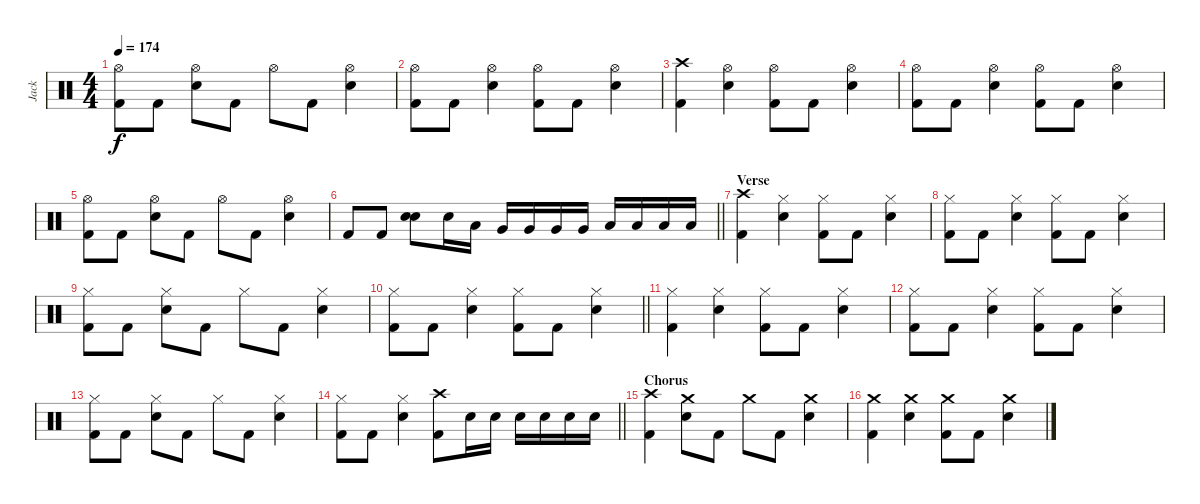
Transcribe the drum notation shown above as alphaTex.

\track ("Jack" "Jack") {instrument percussion}
\staff {score}
\articulation defaults
\ts (4 4)
\tempo 174
\clef neutral
\ks c
("Hi-Hat (open)" "Kick (hit) 2").8{dy f} "Kick (hit) 2".8 ("Hi-Hat (open)" "Electric Snare (hit)").8 "Kick (hit) 2".8 "Hi-Hat (open)".8 "Kick (hit) 2".8 ("Hi-Hat (open)" "Electric Snare (hit)").4 |
("Hi-Hat (open)" "Kick (hit) 2").8 "Kick (hit) 2".8 ("Hi-Hat (open)" "Electric Snare (hit)").4 ("Hi-Hat (open)" "Kick (hit) 2").8 "Kick (hit) 2".8 ("Hi-Hat (open)" "Electric Snare (hit)").4 |
("Crash high (hit)" "Kick (hit) 2").4 ("Hi-Hat (open)" "Electric Snare (hit)").4 ("Hi-Hat (open)" "Kick (hit) 2").8 "Kick (hit) 2".8 ("Hi-Hat (open)" "Electric Snare (hit)").4 |
("Hi-Hat (open)" "Kick (hit) 2").8 "Kick (hit) 2".8 ("Hi-Hat (open)" "Electric Snare (hit)").4 ("Hi-Hat (open)" "Kick (hit) 2").8 "Kick (hit) 2".8 ("Hi-Hat (open)" "Electric Snare (hit)").4 |
("Hi-Hat (open)" "Kick (hit) 2").8 "Kick (hit) 2".8 ("Hi-Hat (open)" "Electric Snare (hit)").8 "Kick (hit) 2".8 "Hi-Hat (open)".8 "Kick (hit) 2".8 ("Hi-Hat (open)" "Electric Snare (hit)").4 |
\barLineRight lightlight "Kick (hit) 2".8 "Kick (hit) 2".8
("Electric Snare (hit)" "Electric Snare (hit)").8 "Electric Snare (hit)".16 "Low Tom (hit)".16 "Very Low Tom (hit)".16 "Very Low Tom (hit)".16 "Very Low Tom (hit)".16 "Very Low Tom (hit)".16 "Low Floor Tom (hit)".16 "Low Floor Tom (hit)".16 "Low Floor Tom (hit)".16 "Low Floor Tom (hit)".16 |
\section ("" "Verse")
("Crash high (hit)" "Kick (hit) 2").4 ("Hi-Hat (closed)" "Electric Snare (hit)").4 ("Hi-Hat (closed)" "Kick (hit) 2").8 "Kick (hit) 2".8 ("Hi-Hat (closed)" "Electric Snare (hit)").4 |
("Hi-Hat (closed)" "Kick (hit) 2").8 "Kick (hit) 2".8 ("Hi-Hat (closed)" "Electric Snare (hit)").4 ("Hi-Hat (closed)" "Kick (hit) 2").8 "Kick (hit) 2".8 ("Hi-Hat (closed)" "Electric Snare (hit)").4 |
("Hi-Hat (closed)" "Kick (hit) 2").8 "Kick (hit) 2".8 ("Hi-Hat (closed)" "Electric Snare (hit)").8 "Kick (hit) 2".8 "Hi-Hat (closed)".8 "Kick (hit) 2".8 ("Hi-Hat (closed)" "Electric Snare (hit)").4 |
\barLineRight lightlight
("Hi-Hat (closed)" "Kick (hit) 2").8 "Kick (hit) 2".8 ("Hi-Hat (closed)" "Electric Snare (hit)").4 ("Hi-Hat (closed)" "Kick (hit) 2").8 "Kick (hit) 2".8 ("Hi-Hat (closed)" "Electric Snare (hit)").4 |
("Hi-Hat (closed)" "Kick (hit) 2").4 ("Hi-Hat (closed)" "Electric Snare (hit)").4 ("Hi-Hat (closed)" "Kick (hit) 2").8 "Kick (hit) 2".8 ("Hi-Hat (closed)" "Electric Snare (hit)").4 |
("Hi-Hat (closed)" "Kick (hit) 2").8 "Kick (hit) 2".8 ("Hi-Hat (closed)" "Electric Snare (hit)").4 ("Hi-Hat (closed)" "Kick (hit) 2").8 "Kick (hit) 2".8 ("Hi-Hat (closed)" "Electric Snare (hit)").4 |
("Hi-Hat (closed)" "Kick (hit) 2").8 "Kick (hit) 2".8 ("Hi-Hat (closed)" "Electric Snare (hit)").8 "Kick (hit) 2".8 "Hi-Hat (closed)".8 "Kick (hit) 2".8 ("Hi-Hat (closed)" "Electric Snare (hit)").4 |
\barLineRight lightlight
("Hi-Hat (closed)" "Kick (hit) 2").8 "Kick (hit) 2".8 ("Hi-Hat (closed)" "Electric Snare (hit)").4 ("Crash high (hit)" "Kick (hit) 2").8 "Electric Snare (hit)".16 "Electric Snare (hit)".16 "Electric Snare (hit)".16 "Electric Snare (hit)".16 "Electric Snare (hit)".16 "Electric Snare (hit)".16 |
\section ("" "Chorus")
("Crash high (hit)" "Kick (hit) 2").4 ("Crash medium (hit)" "Electric Snare (hit)").8 "Kick (hit) 2".8 "Crash medium (hit)".8 "Kick (hit) 2".8 ("Crash medium (hit)" "Electric Snare (hit)").4 |
("Crash medium (hit)" "Kick (hit) 2").4 ("Crash medium (hit)" "Electric Snare (hit)").4 ("Crash medium (hit)" "Kick (hit) 2").8 "Kick (hit) 2".8 ("Crash medium (hit)" "Electric Snare (hit)").4
